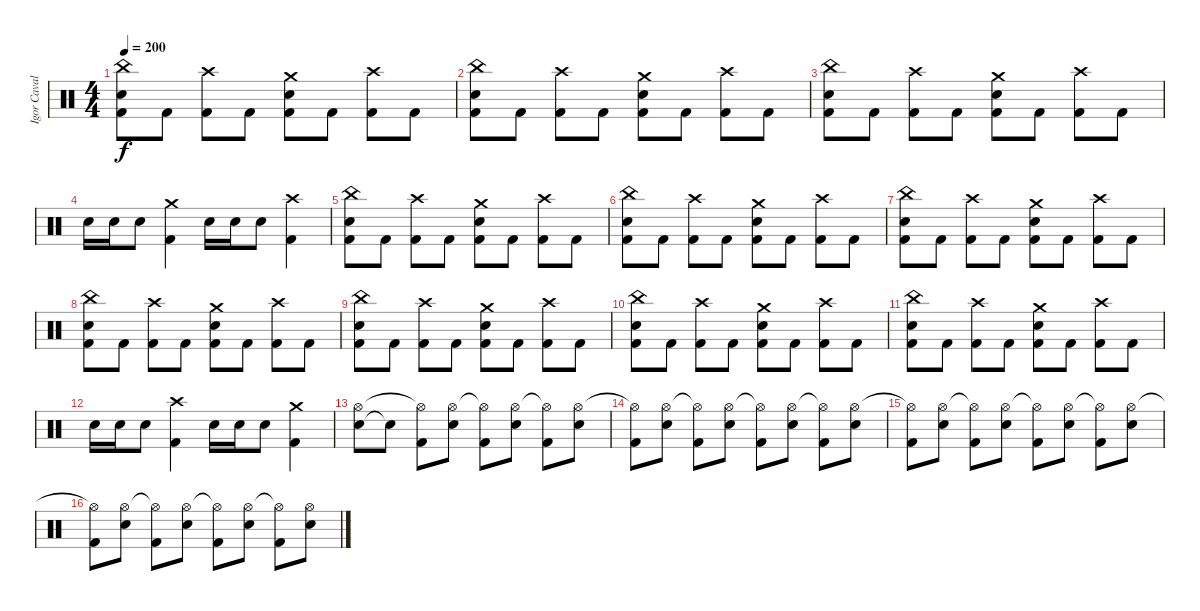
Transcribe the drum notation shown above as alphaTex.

\track ("Igor Cavalera" "Igor Caval") {instrument percussion}
\staff {score}
\articulation defaults
\ts (4 4)
\tempo 200
\clef neutral
\ks c
("Kick (hit) 2" "Snare (hit) 2" "China (hit)").8{dy f} "Kick (hit) 2".8 ("Kick (hit) 2" "Crash high (hit)").8 "Kick (hit) 2".8 ("Kick (hit) 2" "Snare (hit) 2" "Crash medium (hit)").8 "Kick (hit) 2".8 ("Kick (hit) 2" "Crash high (hit)").8 "Kick (hit) 2".8 |
("Kick (hit) 2" "Snare (hit) 2" "China (hit)").8 "Kick (hit) 2".8 ("Kick (hit) 2" "Crash high (hit)").8 "Kick (hit) 2".8 ("Kick (hit) 2" "Snare (hit) 2" "Crash medium (hit)").8 "Kick (hit) 2".8 ("Kick (hit) 2" "Crash high (hit)").8 "Kick (hit) 2".8 |
("Kick (hit) 2" "Snare (hit) 2" "China (hit)").8 "Kick (hit) 2".8 ("Kick (hit) 2" "Crash high (hit)").8 "Kick (hit) 2".8 ("Kick (hit) 2" "Snare (hit) 2" "Crash medium (hit)").8 "Kick (hit) 2".8 ("Kick (hit) 2" "Crash high (hit)").8 "Kick (hit) 2".8 |
"Snare (hit) 2".16 "Snare (hit) 2".16 "Snare (hit) 2".8 ("Kick (hit) 2" "Crash medium (hit)").4 "Snare (hit) 2".16 "Snare (hit) 2".16 "Snare (hit) 2".8 ("Kick (hit) 2" "Crash high (hit)").4 |
("Kick (hit) 2" "Snare (hit) 2" "China (hit)").8 "Kick (hit) 2".8 ("Kick (hit) 2" "Crash high (hit)").8 "Kick (hit) 2".8 ("Kick (hit) 2" "Snare (hit) 2" "Crash medium (hit)").8 "Kick (hit) 2".8 ("Kick (hit) 2" "Crash high (hit)").8 "Kick (hit) 2".8 |
("Kick (hit) 2" "Snare (hit) 2" "China (hit)").8 "Kick (hit) 2".8 ("Kick (hit) 2" "Crash high (hit)").8 "Kick (hit) 2".8 ("Kick (hit) 2" "Snare (hit) 2" "Crash medium (hit)").8 "Kick (hit) 2".8 ("Kick (hit) 2" "Crash high (hit)").8 "Kick (hit) 2".8 |
("Kick (hit) 2" "Snare (hit) 2" "China (hit)").8 "Kick (hit) 2".8 ("Kick (hit) 2" "Crash high (hit)").8 "Kick (hit) 2".8 ("Kick (hit) 2" "Snare (hit) 2" "Crash medium (hit)").8 "Kick (hit) 2".8 ("Kick (hit) 2" "Crash high (hit)").8 "Kick (hit) 2".8 |
("Kick (hit) 2" "Snare (hit) 2" "China (hit)").8 "Kick (hit) 2".8 ("Kick (hit) 2" "Crash high (hit)").8 "Kick (hit) 2".8 ("Kick (hit) 2" "Snare (hit) 2" "Crash medium (hit)").8 "Kick (hit) 2".8 ("Kick (hit) 2" "Crash high (hit)").8 "Kick (hit) 2".8 |
("Kick (hit) 2" "Snare (hit) 2" "China (hit)").8 "Kick (hit) 2".8 ("Kick (hit) 2" "Crash high (hit)").8 "Kick (hit) 2".8 ("Kick (hit) 2" "Snare (hit) 2" "Crash medium (hit)").8 "Kick (hit) 2".8 ("Kick (hit) 2" "Crash high (hit)").8 "Kick (hit) 2".8 |
("Kick (hit) 2" "Snare (hit) 2" "China (hit)").8 "Kick (hit) 2".8 ("Kick (hit) 2" "Crash high (hit)").8 "Kick (hit) 2".8 ("Kick (hit) 2" "Snare (hit) 2" "Crash medium (hit)").8 "Kick (hit) 2".8 ("Kick (hit) 2" "Crash high (hit)").8 "Kick (hit) 2".8 |
("Kick (hit) 2" "Snare (hit) 2" "China (hit)").8 "Kick (hit) 2".8 ("Kick (hit) 2" "Crash high (hit)").8 "Kick (hit) 2".8 ("Kick (hit) 2" "Snare (hit) 2" "Crash medium (hit)").8 "Kick (hit) 2".8 ("Kick (hit) 2" "Crash high (hit)").8 "Kick (hit) 2".8 |
"Snare (hit) 2".16 "Snare (hit) 2".16 "Snare (hit) 2".8 ("Kick (hit) 2" "Crash high (hit)").4 "Snare (hit) 2".16 "Snare (hit) 2".16 "Snare (hit) 2".8 ("Kick (hit) 2" "Crash medium (hit)").4 |
("Snare (hit) 2" "Hi-Hat (open)").8 "Snare (hit)"{t}.8 ("Kick (hit) 2" "Hi-Hat (open)"{t}).8 ("Snare (hit) 2" "Hi-Hat (open)").8 ("Kick (hit) 2" "Hi-Hat (open)"{t}).8 ("Snare (hit) 2" "Hi-Hat (open)").8 ("Kick (hit) 2" "Hi-Hat (open)"{t}).8 ("Snare (hit) 2" "Hi-Hat (open)").8 |
("Kick (hit) 2" "Hi-Hat (open)"{t}).8 ("Snare (hit) 2" "Hi-Hat (open)").8 ("Kick (hit) 2" "Hi-Hat (open)"{t}).8 ("Snare (hit) 2" "Hi-Hat (open)").8 ("Kick (hit) 2" "Hi-Hat (open)"{t}).8 ("Snare (hit) 2" "Hi-Hat (open)").8 ("Kick (hit) 2" "Hi-Hat (open)"{t}).8 ("Snare (hit) 2" "Hi-Hat (open)").8 |
("Kick (hit) 2" "Hi-Hat (open)"{t}).8 ("Snare (hit) 2" "Hi-Hat (open)").8 ("Kick (hit) 2" "Hi-Hat (open)"{t}).8 ("Snare (hit) 2" "Hi-Hat (open)").8 ("Kick (hit) 2" "Hi-Hat (open)"{t}).8 ("Snare (hit) 2" "Hi-Hat (open)").8 ("Kick (hit) 2" "Hi-Hat (open)"{t}).8 ("Snare (hit) 2" "Hi-Hat (open)").8 |
("Kick (hit) 2" "Hi-Hat (open)"{t}).8 ("Snare (hit) 2" "Hi-Hat (open)").8 ("Kick (hit) 2" "Hi-Hat (open)"{t}).8 ("Snare (hit) 2" "Hi-Hat (open)").8 ("Kick (hit) 2" "Hi-Hat (open)"{t}).8 ("Snare (hit) 2" "Hi-Hat (open)").8 ("Kick (hit) 2" "Hi-Hat (open)"{t}).8 ("Snare (hit) 2" "Hi-Hat (open)").8
